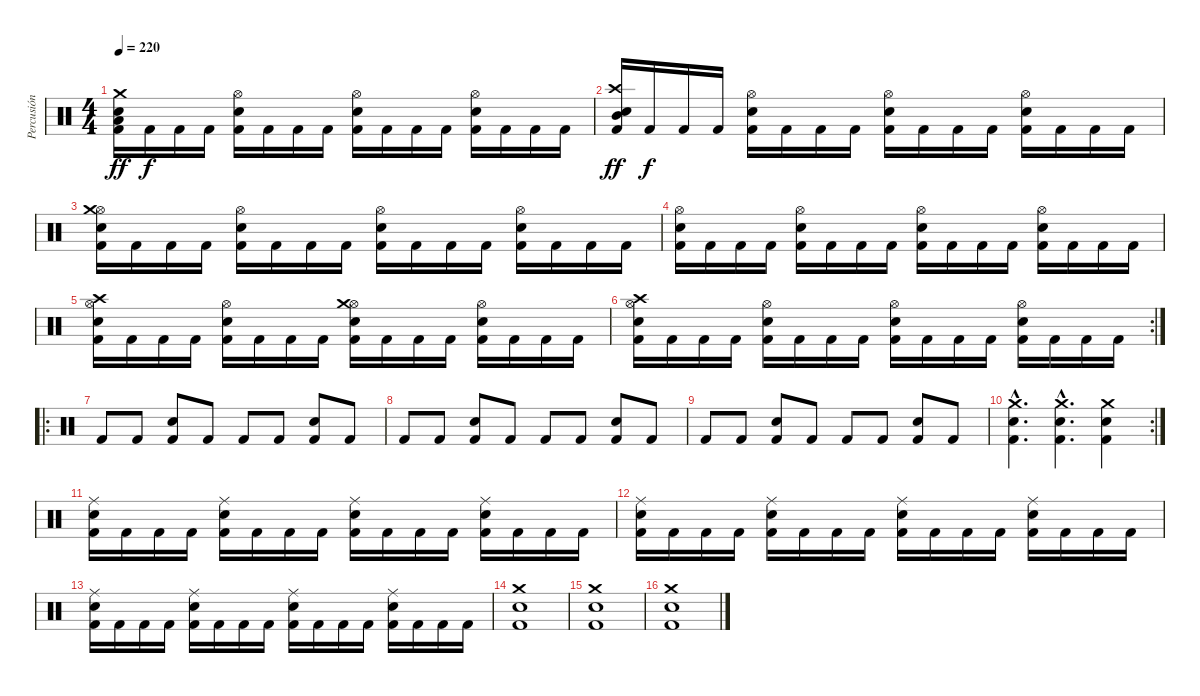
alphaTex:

\track ("Percusión" "Percusión") {instrument percussion}
\staff {score}
\articulation defaults
\ts (4 4)
\tempo 220
\clef neutral
\ks c
("Crash medium (hit)" "Low Tom (hit)" "Snare (hit) 2" "Kick (hit) 2").16{dy ff} "Kick (hit) 2".16{dy f} "Kick (hit) 2".16 "Kick (hit) 2".16 ("Hi-Hat (open)" "Snare (hit) 2" "Kick (hit) 2").16 "Kick (hit) 2".16 "Kick (hit) 2".16 "Kick (hit) 2".16 ("Hi-Hat (open)" "Snare (hit) 2" "Kick (hit) 2").16 "Kick (hit) 2".16 "Kick (hit) 2".16 "Kick (hit) 2".16 ("Hi-Hat (open)" "Snare (hit) 2" "Kick (hit) 2").16 "Kick (hit) 2".16 "Kick (hit) 2".16 "Kick (hit) 2".16 |
("Crash high (hit)" "Mid Tom (hit)" "Snare (hit) 2" "Kick (hit) 2").16{dy ff} "Kick (hit) 2".16{dy f} "Kick (hit) 2".16 "Kick (hit) 2".16 ("Hi-Hat (open)" "Snare (hit) 2" "Kick (hit) 2").16 "Kick (hit) 2".16 "Kick (hit) 2".16 "Kick (hit) 2".16 ("Hi-Hat (open)" "Snare (hit) 2" "Kick (hit) 2").16 "Kick (hit) 2".16 "Kick (hit) 2".16 "Kick (hit) 2".16 ("Hi-Hat (open)" "Snare (hit) 2" "Kick (hit) 2").16 "Kick (hit) 2".16 "Kick (hit) 2".16 "Kick (hit) 2".16 |
("Hi-Hat (open)" "Crash medium (hit)" "Snare (hit) 2" "Kick (hit) 2").16 "Kick (hit) 2".16 "Kick (hit) 2".16 "Kick (hit) 2".16 ("Hi-Hat (open)" "Snare (hit) 2" "Kick (hit) 2").16 "Kick (hit) 2".16 "Kick (hit) 2".16 "Kick (hit) 2".16 ("Hi-Hat (open)" "Snare (hit) 2" "Kick (hit) 2").16 "Kick (hit) 2".16 "Kick (hit) 2".16 "Kick (hit) 2".16 ("Hi-Hat (open)" "Snare (hit) 2" "Kick (hit) 2").16 "Kick (hit) 2".16 "Kick (hit) 2".16 "Kick (hit) 2".16 |
("Hi-Hat (open)" "Snare (hit) 2" "Kick (hit) 2").16 "Kick (hit) 2".16 "Kick (hit) 2".16 "Kick (hit) 2".16 ("Hi-Hat (open)" "Snare (hit) 2" "Kick (hit) 2").16 "Kick (hit) 2".16 "Kick (hit) 2".16 "Kick (hit) 2".16 ("Hi-Hat (open)" "Snare (hit) 2" "Kick (hit) 2").16 "Kick (hit) 2".16 "Kick (hit) 2".16 "Kick (hit) 2".16 ("Hi-Hat (open)" "Snare (hit) 2" "Kick (hit) 2").16 "Kick (hit) 2".16 "Kick (hit) 2".16 "Kick (hit) 2".16 |
("Hi-Hat (open)" "Crash high (hit)" "Snare (hit) 2" "Kick (hit) 2").16 "Kick (hit) 2".16 "Kick (hit) 2".16 "Kick (hit) 2".16 ("Hi-Hat (open)" "Snare (hit) 2" "Kick (hit) 2").16 "Kick (hit) 2".16 "Kick (hit) 2".16 "Kick (hit) 2".16 ("Hi-Hat (open)" "Crash medium (hit)" "Snare (hit) 2" "Kick (hit) 2").16 "Kick (hit) 2".16 "Kick (hit) 2".16 "Kick (hit) 2".16 ("Hi-Hat (open)" "Snare (hit) 2" "Kick (hit) 2").16 "Kick (hit) 2".16 "Kick (hit) 2".16 "Kick (hit) 2".16 |
\rc 2
("Hi-Hat (open)" "Crash high (hit)" "Snare (hit) 2" "Kick (hit) 2").16 "Kick (hit) 2".16 "Kick (hit) 2".16 "Kick (hit) 2".16 ("Hi-Hat (open)" "Snare (hit) 2" "Kick (hit) 2").16 "Kick (hit) 2".16 "Kick (hit) 2".16 "Kick (hit) 2".16 ("Hi-Hat (open)" "Snare (hit) 2" "Kick (hit) 2").16 "Kick (hit) 2".16 "Kick (hit) 2".16 "Kick (hit) 2".16 ("Hi-Hat (open)" "Snare (hit) 2" "Kick (hit) 2").16 "Kick (hit) 2".16 "Kick (hit) 2".16 "Kick (hit) 2".16 |
\ro "Kick (hit) 2".8 "Kick (hit) 2".8
("Snare (hit) 2" "Kick (hit) 2").8 "Kick (hit) 2".8 "Kick (hit) 2".8 "Kick (hit) 2".8 ("Snare (hit) 2" "Kick (hit) 2").8 "Kick (hit) 2".8 |
"Kick (hit) 2".8 "Kick (hit) 2".8 ("Snare (hit) 2" "Kick (hit) 2").8 "Kick (hit) 2".8 "Kick (hit) 2".8 "Kick (hit) 2".8 ("Snare (hit) 2" "Kick (hit) 2").8 "Kick (hit) 2".8 |
"Kick (hit) 2".8 "Kick (hit) 2".8 ("Snare (hit) 2" "Kick (hit) 2").8 "Kick (hit) 2".8 "Kick (hit) 2".8 "Kick (hit) 2".8 ("Snare (hit) 2" "Kick (hit) 2").8 "Kick (hit) 2".8 |
\rc 2
("Crash medium (hit)"{hac} "Electric Snare (hit)"{hac} "Kick (hit) 2"{hac}).4{d} ("Crash medium (hit)"{hac} "Electric Snare (hit)"{hac} "Kick (hit) 2"{hac}).4{d} ("Crash medium (hit)" "Electric Snare (hit)" "Kick (hit) 2").4 |
("Ride (middle)" "Snare (hit) 2" "Kick (hit) 2").16 "Kick (hit) 2".16 "Kick (hit) 2".16 "Kick (hit) 2".16 ("Ride (middle)" "Snare (hit) 2" "Kick (hit) 2").16 "Kick (hit) 2".16 "Kick (hit) 2".16 "Kick (hit) 2".16 ("Ride (middle)" "Snare (hit) 2" "Kick (hit) 2").16 "Kick (hit) 2".16 "Kick (hit) 2".16 "Kick (hit) 2".16 ("Ride (middle)" "Snare (hit) 2" "Kick (hit) 2").16 "Kick (hit) 2".16 "Kick (hit) 2".16 "Kick (hit) 2".16 |
("Ride (middle)" "Snare (hit) 2" "Kick (hit) 2").16 "Kick (hit) 2".16 "Kick (hit) 2".16 "Kick (hit) 2".16 ("Ride (middle)" "Snare (hit) 2" "Kick (hit) 2").16 "Kick (hit) 2".16 "Kick (hit) 2".16 "Kick (hit) 2".16 ("Ride (middle)" "Snare (hit) 2" "Kick (hit) 2").16 "Kick (hit) 2".16 "Kick (hit) 2".16 "Kick (hit) 2".16 ("Ride (middle)" "Snare (hit) 2" "Kick (hit) 2").16 "Kick (hit) 2".16 "Kick (hit) 2".16 "Kick (hit) 2".16 |
("Ride (middle)" "Snare (hit) 2" "Kick (hit) 2").16 "Kick (hit) 2".16 "Kick (hit) 2".16 "Kick (hit) 2".16 ("Ride (middle)" "Snare (hit) 2" "Kick (hit) 2").16 "Kick (hit) 2".16 "Kick (hit) 2".16 "Kick (hit) 2".16 ("Ride (middle)" "Snare (hit) 2" "Kick (hit) 2").16 "Kick (hit) 2".16 "Kick (hit) 2".16 "Kick (hit) 2".16 ("Ride (middle)" "Snare (hit) 2" "Kick (hit) 2").16 "Kick (hit) 2".16 "Kick (hit) 2".16 "Kick (hit) 2".16 |
("Crash medium (hit)" "Snare (hit) 2" "Kick (hit) 2").1 |
("Crash medium (hit)" "Snare (hit) 2" "Kick (hit) 2").1 |
("Crash medium (hit)" "Snare (hit) 2" "Kick (hit) 2").1
